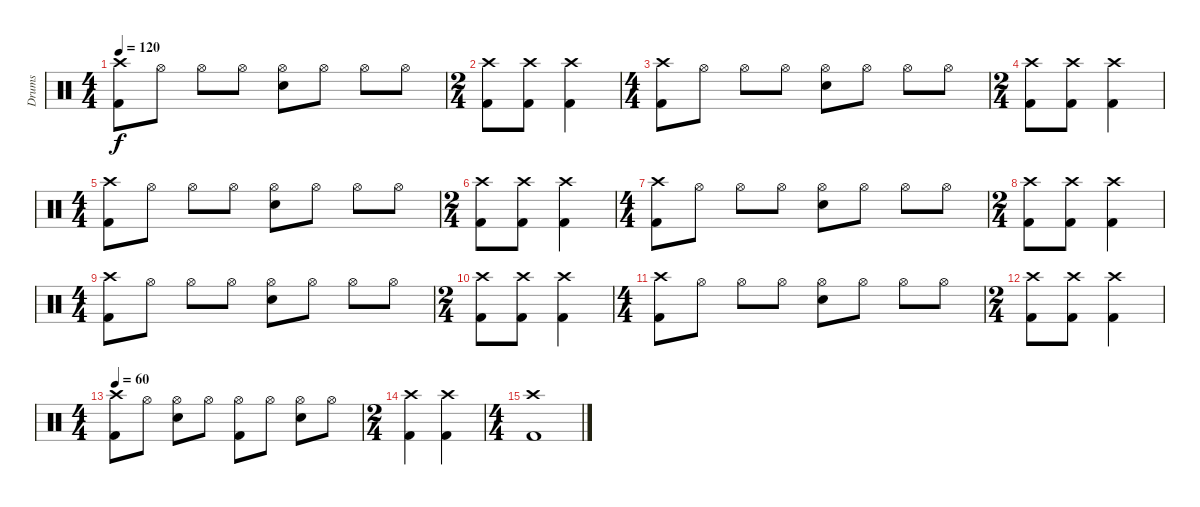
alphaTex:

\track ("Drums" "Drums") {instrument percussion}
\staff {score}
\articulation defaults
\ts (4 4)
\tempo 120
\clef neutral
\ks c
("Crash high (hit)" "Kick (hit) 2").8{dy f} "Hi-Hat (open)".8 "Hi-Hat (open)".8 "Hi-Hat (open)".8 ("Hi-Hat (open)" "Electric Snare (hit)").8 "Hi-Hat (open)".8 "Hi-Hat (open)".8 "Hi-Hat (open)".8 |
\ts (2 4)
("Crash high (hit)" "Kick (hit) 2").8 ("Crash high (hit)" "Kick (hit) 2").8 ("Crash high (hit)" "Kick (hit) 2").4 |
\ts (4 4)
("Crash high (hit)" "Kick (hit) 2").8 "Hi-Hat (open)".8 "Hi-Hat (open)".8 "Hi-Hat (open)".8 ("Hi-Hat (open)" "Electric Snare (hit)").8 "Hi-Hat (open)".8 "Hi-Hat (open)".8 "Hi-Hat (open)".8 |
\ts (2 4)
("Crash high (hit)" "Kick (hit) 2").8 ("Crash high (hit)" "Kick (hit) 2").8 ("Crash high (hit)" "Kick (hit) 2").4 |
\ts (4 4)
("Crash high (hit)" "Kick (hit) 2").8 "Hi-Hat (open)".8 "Hi-Hat (open)".8 "Hi-Hat (open)".8 ("Hi-Hat (open)" "Electric Snare (hit)").8 "Hi-Hat (open)".8 "Hi-Hat (open)".8 "Hi-Hat (open)".8 |
\ts (2 4)
("Crash high (hit)" "Kick (hit) 2").8 ("Crash high (hit)" "Kick (hit) 2").8 ("Crash high (hit)" "Kick (hit) 2").4 |
\ts (4 4)
("Crash high (hit)" "Kick (hit) 2").8 "Hi-Hat (open)".8 "Hi-Hat (open)".8 "Hi-Hat (open)".8 ("Hi-Hat (open)" "Electric Snare (hit)").8 "Hi-Hat (open)".8 "Hi-Hat (open)".8 "Hi-Hat (open)".8 |
\ts (2 4)
("Crash high (hit)" "Kick (hit) 2").8 ("Crash high (hit)" "Kick (hit) 2").8 ("Crash high (hit)" "Kick (hit) 2").4 |
\ts (4 4)
("Crash high (hit)" "Kick (hit) 2").8 "Hi-Hat (open)".8 "Hi-Hat (open)".8 "Hi-Hat (open)".8 ("Hi-Hat (open)" "Electric Snare (hit)").8 "Hi-Hat (open)".8 "Hi-Hat (open)".8 "Hi-Hat (open)".8 |
\ts (2 4)
("Crash high (hit)" "Kick (hit) 2").8 ("Crash high (hit)" "Kick (hit) 2").8 ("Crash high (hit)" "Kick (hit) 2").4 |
\ts (4 4)
("Crash high (hit)" "Kick (hit) 2").8 "Hi-Hat (open)".8 "Hi-Hat (open)".8 "Hi-Hat (open)".8 ("Hi-Hat (open)" "Electric Snare (hit)").8 "Hi-Hat (open)".8 "Hi-Hat (open)".8 "Hi-Hat (open)".8 |
\ts (2 4)
("Crash high (hit)" "Kick (hit) 2").8 ("Crash high (hit)" "Kick (hit) 2").8 ("Crash high (hit)" "Kick (hit) 2").4 |
\ts (4 4)
\tempo 60
("Crash high (hit)" "Kick (hit) 2").8 "Hi-Hat (open)".8 ("Hi-Hat (open)" "Electric Snare (hit)").8 "Hi-Hat (open)".8 ("Hi-Hat (open)" "Kick (hit) 2").8 "Hi-Hat (open)".8 ("Hi-Hat (open)" "Electric Snare (hit)").8 "Hi-Hat (open)".8 |
\ts (2 4)
("Crash high (hit)" "Kick (hit) 2").4 ("Crash high (hit)" "Kick (hit) 2").4 |
\ts (4 4)
("Crash high (hit)" "Kick (hit) 2").1
